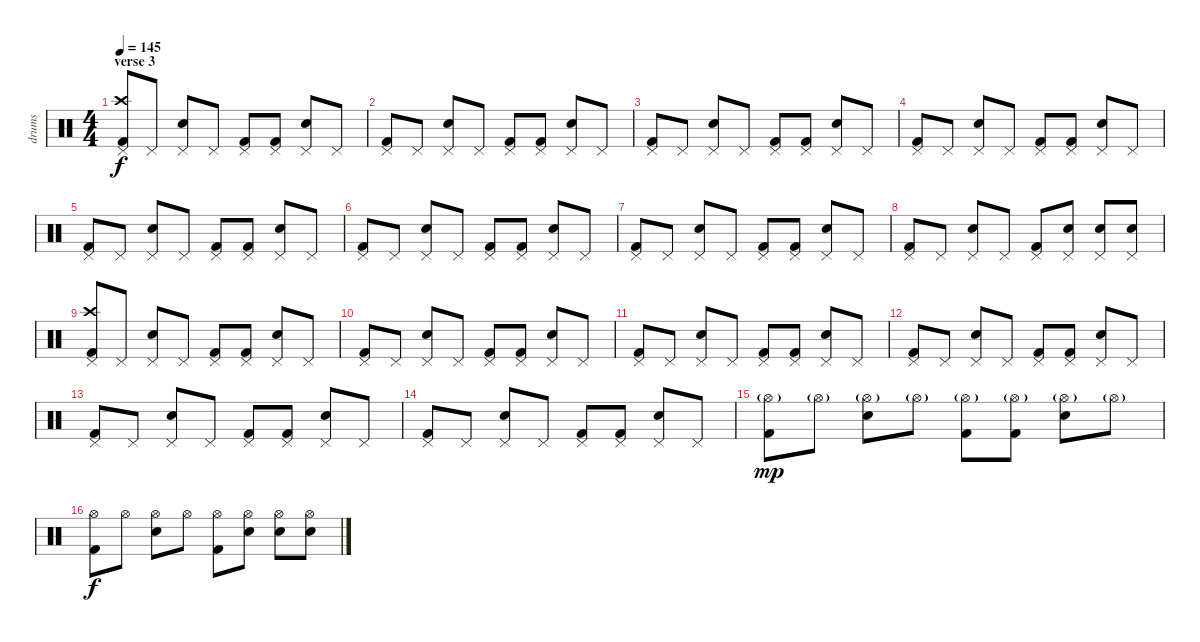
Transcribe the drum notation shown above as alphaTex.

\track ("drums" "drums") {instrument percussion}
\staff {score}
\articulation defaults
\ts (4 4)
\section ("" "verse 3")
\tempo 145
\clef neutral
\ks c
("Kick (hit) 2" "Crash high (hit)" "Pedal Hi-Hat (hit)").8{dy f} "Pedal Hi-Hat (hit)".8 ("Snare (hit) 2" "Pedal Hi-Hat (hit)").8 "Pedal Hi-Hat (hit)".8 ("Kick (hit) 2" "Pedal Hi-Hat (hit)").8 ("Kick (hit) 2" "Pedal Hi-Hat (hit)").8 ("Snare (hit) 2" "Pedal Hi-Hat (hit)").8 "Pedal Hi-Hat (hit)".8 |
("Kick (hit) 2" "Pedal Hi-Hat (hit)").8 "Pedal Hi-Hat (hit)".8 ("Snare (hit) 2" "Pedal Hi-Hat (hit)").8 "Pedal Hi-Hat (hit)".8 ("Kick (hit) 2" "Pedal Hi-Hat (hit)").8 ("Kick (hit) 2" "Pedal Hi-Hat (hit)").8 ("Snare (hit) 2" "Pedal Hi-Hat (hit)").8 "Pedal Hi-Hat (hit)".8 |
("Kick (hit) 2" "Pedal Hi-Hat (hit)").8 "Pedal Hi-Hat (hit)".8 ("Snare (hit) 2" "Pedal Hi-Hat (hit)").8 "Pedal Hi-Hat (hit)".8 ("Kick (hit) 2" "Pedal Hi-Hat (hit)").8 ("Kick (hit) 2" "Pedal Hi-Hat (hit)").8 ("Snare (hit) 2" "Pedal Hi-Hat (hit)").8 "Pedal Hi-Hat (hit)".8 |
("Kick (hit) 2" "Pedal Hi-Hat (hit)").8 "Pedal Hi-Hat (hit)".8 ("Snare (hit) 2" "Pedal Hi-Hat (hit)").8 "Pedal Hi-Hat (hit)".8 ("Kick (hit) 2" "Pedal Hi-Hat (hit)").8 ("Kick (hit) 2" "Pedal Hi-Hat (hit)").8 ("Snare (hit) 2" "Pedal Hi-Hat (hit)").8 "Pedal Hi-Hat (hit)".8 |
("Kick (hit) 2" "Pedal Hi-Hat (hit)").8 "Pedal Hi-Hat (hit)".8 ("Snare (hit) 2" "Pedal Hi-Hat (hit)").8 "Pedal Hi-Hat (hit)".8 ("Kick (hit) 2" "Pedal Hi-Hat (hit)").8 ("Kick (hit) 2" "Pedal Hi-Hat (hit)").8 ("Snare (hit) 2" "Pedal Hi-Hat (hit)").8 "Pedal Hi-Hat (hit)".8 |
("Kick (hit) 2" "Pedal Hi-Hat (hit)").8 "Pedal Hi-Hat (hit)".8 ("Snare (hit) 2" "Pedal Hi-Hat (hit)").8 "Pedal Hi-Hat (hit)".8 ("Kick (hit) 2" "Pedal Hi-Hat (hit)").8 ("Kick (hit) 2" "Pedal Hi-Hat (hit)").8 ("Snare (hit) 2" "Pedal Hi-Hat (hit)").8 "Pedal Hi-Hat (hit)".8 |
("Kick (hit) 2" "Pedal Hi-Hat (hit)").8 "Pedal Hi-Hat (hit)".8 ("Snare (hit) 2" "Pedal Hi-Hat (hit)").8 "Pedal Hi-Hat (hit)".8 ("Kick (hit) 2" "Pedal Hi-Hat (hit)").8 ("Kick (hit) 2" "Pedal Hi-Hat (hit)").8 ("Snare (hit) 2" "Pedal Hi-Hat (hit)").8 "Pedal Hi-Hat (hit)".8 |
("Kick (hit) 2" "Pedal Hi-Hat (hit)").8 "Pedal Hi-Hat (hit)".8 ("Snare (hit) 2" "Pedal Hi-Hat (hit)").8 "Pedal Hi-Hat (hit)".8 ("Kick (hit) 2" "Pedal Hi-Hat (hit)").8 ("Snare (hit) 2" "Pedal Hi-Hat (hit)").8 ("Snare (hit) 2" "Pedal Hi-Hat (hit)").8 ("Snare (hit) 2" "Pedal Hi-Hat (hit)").8 |
("Kick (hit) 2" "Crash high (hit)" "Pedal Hi-Hat (hit)").8 "Pedal Hi-Hat (hit)".8 ("Snare (hit) 2" "Pedal Hi-Hat (hit)").8 "Pedal Hi-Hat (hit)".8 ("Kick (hit) 2" "Pedal Hi-Hat (hit)").8 ("Kick (hit) 2" "Pedal Hi-Hat (hit)").8 ("Snare (hit) 2" "Pedal Hi-Hat (hit)").8 "Pedal Hi-Hat (hit)".8 |
("Kick (hit) 2" "Pedal Hi-Hat (hit)").8 "Pedal Hi-Hat (hit)".8 ("Snare (hit) 2" "Pedal Hi-Hat (hit)").8 "Pedal Hi-Hat (hit)".8 ("Kick (hit) 2" "Pedal Hi-Hat (hit)").8 ("Kick (hit) 2" "Pedal Hi-Hat (hit)").8 ("Snare (hit) 2" "Pedal Hi-Hat (hit)").8 "Pedal Hi-Hat (hit)".8 |
("Kick (hit) 2" "Pedal Hi-Hat (hit)").8 "Pedal Hi-Hat (hit)".8 ("Snare (hit) 2" "Pedal Hi-Hat (hit)").8 "Pedal Hi-Hat (hit)".8 ("Kick (hit) 2" "Pedal Hi-Hat (hit)").8 ("Kick (hit) 2" "Pedal Hi-Hat (hit)").8 ("Snare (hit) 2" "Pedal Hi-Hat (hit)").8 "Pedal Hi-Hat (hit)".8 |
("Kick (hit) 2" "Pedal Hi-Hat (hit)").8 "Pedal Hi-Hat (hit)".8 ("Snare (hit) 2" "Pedal Hi-Hat (hit)").8 "Pedal Hi-Hat (hit)".8 ("Kick (hit) 2" "Pedal Hi-Hat (hit)").8 ("Kick (hit) 2" "Pedal Hi-Hat (hit)").8 ("Snare (hit) 2" "Pedal Hi-Hat (hit)").8 "Pedal Hi-Hat (hit)".8 |
("Kick (hit) 2" "Pedal Hi-Hat (hit)").8 "Pedal Hi-Hat (hit)".8 ("Snare (hit) 2" "Pedal Hi-Hat (hit)").8 "Pedal Hi-Hat (hit)".8 ("Kick (hit) 2" "Pedal Hi-Hat (hit)").8 ("Kick (hit) 2" "Pedal Hi-Hat (hit)").8 ("Snare (hit) 2" "Pedal Hi-Hat (hit)").8 "Pedal Hi-Hat (hit)".8 |
("Kick (hit) 2" "Pedal Hi-Hat (hit)").8 "Pedal Hi-Hat (hit)".8 ("Snare (hit) 2" "Pedal Hi-Hat (hit)").8 "Pedal Hi-Hat (hit)".8 ("Kick (hit) 2" "Pedal Hi-Hat (hit)").8 ("Kick (hit) 2" "Pedal Hi-Hat (hit)").8 ("Snare (hit) 2" "Pedal Hi-Hat (hit)").8 "Pedal Hi-Hat (hit)".8 |
("Kick (hit) 2" "Hi-Hat (open)"{g}).8{dy mp} "Hi-Hat (open)"{g}.8 ("Snare (hit) 2" "Hi-Hat (open)"{g}).8 "Hi-Hat (open)"{g}.8 ("Kick (hit) 2" "Hi-Hat (open)"{g}).8 ("Kick (hit) 2" "Hi-Hat (open)"{g}).8 ("Snare (hit) 2" "Hi-Hat (open)"{g}).8 "Hi-Hat (open)"{g}.8 |
("Kick (hit) 2" "Hi-Hat (open)").8{dy f} "Hi-Hat (open)".8 ("Snare (hit) 2" "Hi-Hat (open)").8 "Hi-Hat (open)".8 ("Kick (hit) 2" "Hi-Hat (open)").8 ("Snare (hit) 2" "Hi-Hat (open)").8 ("Snare (hit) 2" "Hi-Hat (open)").8 ("Snare (hit) 2" "Hi-Hat (open)").8
